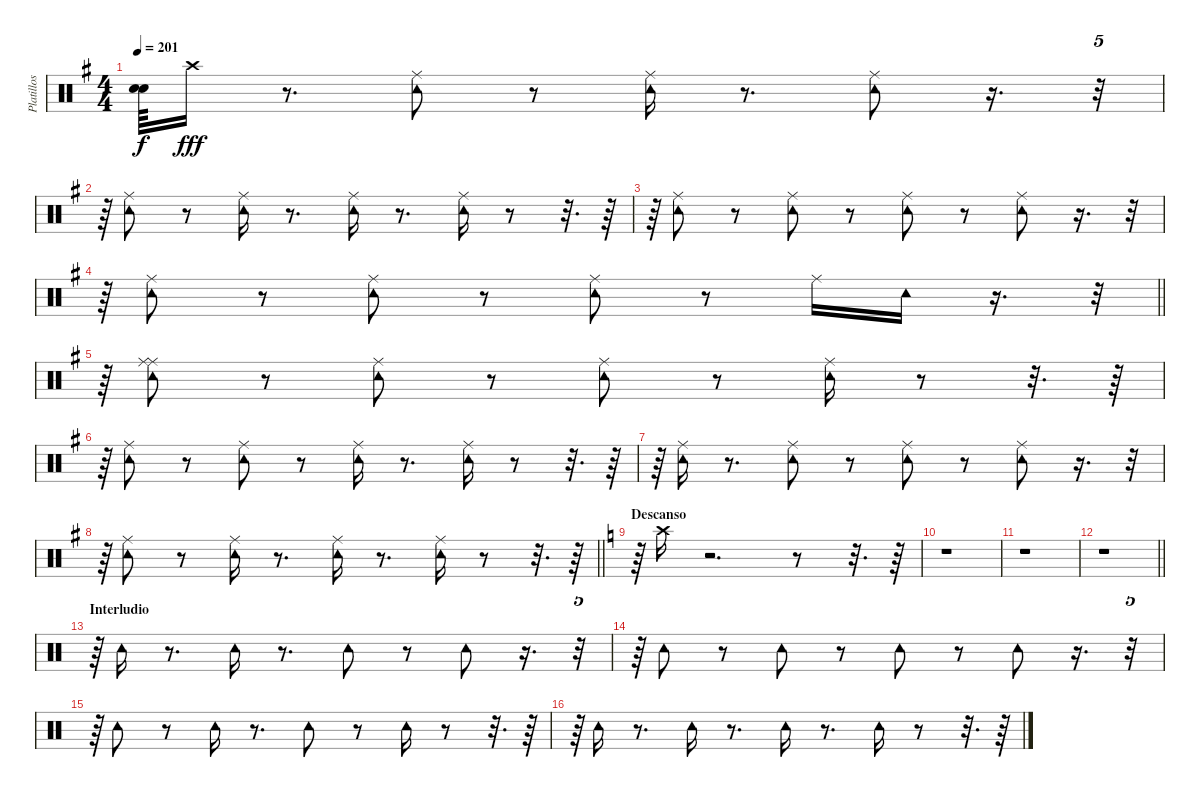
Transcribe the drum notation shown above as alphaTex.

\track ("Platillos y pandero" "Platillos ") {instrument percussion}
\staff {score}
\articulation defaults
\ts (4 4)
\tempo 201
\clef neutral
\ks g
("Snare (hit)"{t} "Snare (hit)"{t}).64{dy f} "Crash high (hit)".16{dy fff} r.8{d} ("Tambourine (hit)" "Ride (middle)").8 r.8 ("Tambourine (hit)" "Ride (middle)").16 r.8{d} ("Ride (middle)" "Tambourine (hit)").8 r.16{d} r.32{tu (5 4)} |
r.64 ("Ride (middle)" "Tambourine (hit)").8 r.8 ("Ride (middle)" "Tambourine (hit)").16 r.8{d} ("Ride (middle)" "Tambourine (hit)").16 r.8{d} ("Ride (middle)" "Tambourine (hit)").16 r.8 r.32{d} r.64 |
r.64 ("Tambourine (hit)" "Ride (middle)").8 r.8 ("Ride (middle)" "Tambourine (hit)").8 r.8 ("Ride (middle)" "Tambourine (hit)").8 r.8 ("Tambourine (hit)" "Ride (middle)").8 r.16{d} r.32{tu (5 4)} |
\barLineRight lightlight
r.64 ("Tambourine (hit)" "Ride (middle)").8 r.8 ("Tambourine (hit)" "Ride (middle)").8 r.8 ("Ride (middle)" "Tambourine (hit)").8 r.8 "Ride (middle)".16 "Tambourine (hit)".16 r.16{d} r.32{tu (5 4)} |
r.64 ("Ride (middle)" "Tambourine (hit)" "Ride (middle)").8 r.8 ("Tambourine (hit)" "Ride (middle)").8 r.8 ("Tambourine (hit)" "Ride (middle)").8 r.8 ("Tambourine (hit)" "Ride (middle)").16 r.8 r.32{d} r.64 |
r.64 ("Ride (middle)" "Tambourine (hit)").8 r.8 ("Ride (middle)" "Tambourine (hit)").8 r.8 ("Ride (middle)" "Tambourine (hit)").16 r.8{d} ("Ride (middle)" "Tambourine (hit)").16 r.8 r.32{d} r.64 |
r.64 ("Ride (middle)" "Tambourine (hit)").16 r.8{d} ("Tambourine (hit)" "Ride (middle)").8 r.8 ("Tambourine (hit)" "Ride (middle)").8 r.8 ("Tambourine (hit)" "Ride (middle)").8 r.16{d} r.32{tu (5 4)} |
\barLineRight lightlight
r.64 ("Tambourine (hit)" "Ride (middle)").8 r.8 ("Tambourine (hit)" "Ride (middle)").16 r.8{d} ("Ride (middle)" "Tambourine (hit)").16 r.8{d} ("Tambourine (hit)" "Ride (middle)").16 r.8 r.32{d} r.64 |
\section ("" "Descanso")
\ks c
r.64 "Crash high (hit)".16 r.2{d} r.8 r.32{d} r.64 |
r.1 |
r.1 |
\barLineRight lightlight
r.1 |
\section ("" "Interludio")
r.64 "Tambourine (hit)".16 r.8{d} "Tambourine (hit)".16 r.8{d} "Tambourine (hit)".8 r.8 "Tambourine (hit)".8 r.16{d} r.32{tu (5 4)} |
r.64 "Tambourine (hit)".8 r.8 "Tambourine (hit)".8 r.8 "Tambourine (hit)".8 r.8 "Tambourine (hit)".8 r.16{d} r.32{tu (5 4)} |
r.64 "Tambourine (hit)".8 r.8 "Tambourine (hit)".16 r.8{d} "Tambourine (hit)".8 r.8 "Tambourine (hit)".16 r.8 r.32{d} r.64 |
r.64 "Tambourine (hit)".16 r.8{d} "Tambourine (hit)".16 r.8{d} "Tambourine (hit)".16 r.8{d} "Tambourine (hit)".16 r.8 r.32{d} r.64
